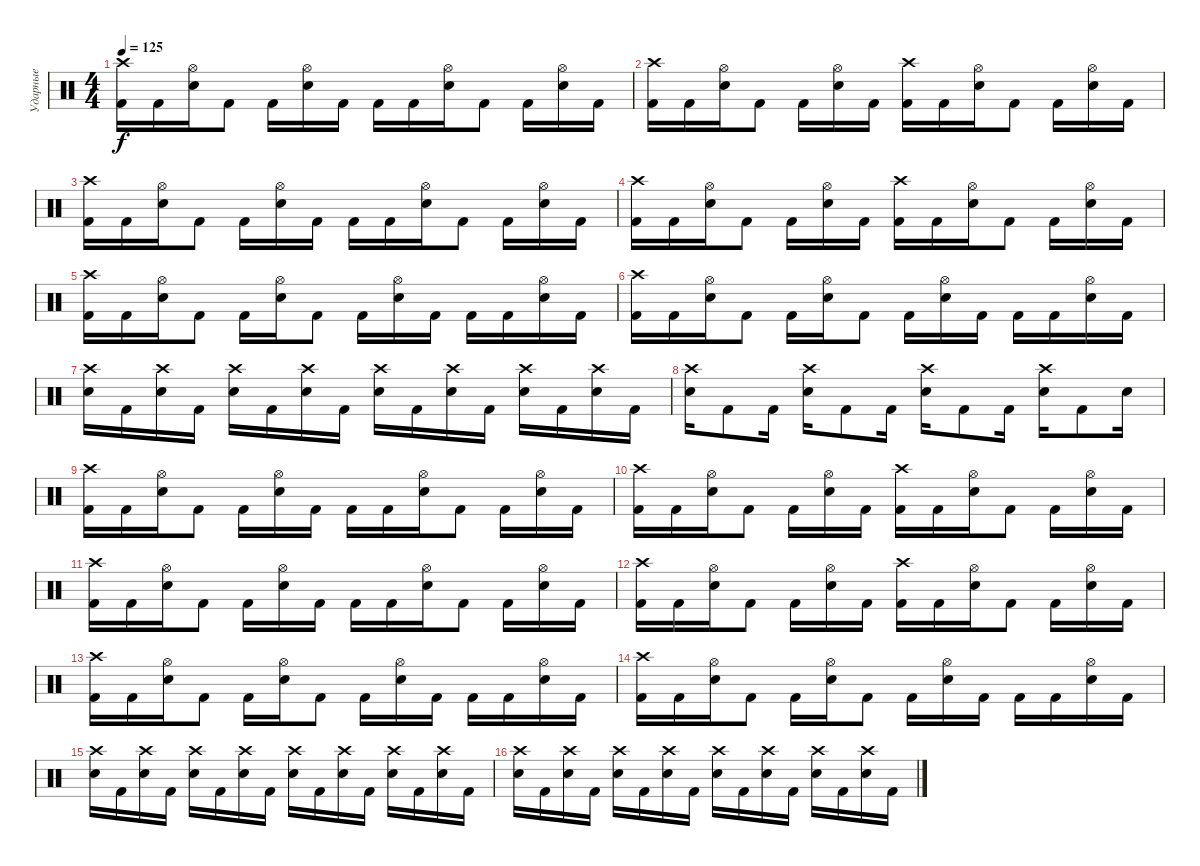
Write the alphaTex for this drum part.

\track ("Ударные" "Ударные") {instrument percussion}
\staff {score}
\articulation defaults
\ts (4 4)
\tempo 125
\clef neutral
\ks c
("Kick (hit) 2" "Crash high (hit)").16{dy f} "Kick (hit) 2".16 ("Electric Snare (hit)" "Hi-Hat (open)").16 "Kick (hit) 2".8 "Kick (hit) 2".16 ("Electric Snare (hit)" "Hi-Hat (open)").16 "Kick (hit) 2".16 "Kick (hit) 2".16 "Kick (hit) 2".16 ("Electric Snare (hit)" "Hi-Hat (open)").16 "Kick (hit) 2".8 "Kick (hit) 2".16 ("Electric Snare (hit)" "Hi-Hat (open)").16 "Kick (hit) 2".16 |
("Kick (hit) 2" "Crash high (hit)").16 "Kick (hit) 2".16 ("Electric Snare (hit)" "Hi-Hat (open)").16 "Kick (hit) 2".8 "Kick (hit) 2".16 ("Electric Snare (hit)" "Hi-Hat (open)").16 "Kick (hit) 2".16 ("Kick (hit) 2" "Crash high (hit)").16 "Kick (hit) 2".16 ("Electric Snare (hit)" "Hi-Hat (open)").16 "Kick (hit) 2".8 "Kick (hit) 2".16 ("Electric Snare (hit)" "Hi-Hat (open)").16 "Kick (hit) 2".16 |
("Kick (hit) 2" "Crash high (hit)").16 "Kick (hit) 2".16 ("Electric Snare (hit)" "Hi-Hat (open)").16 "Kick (hit) 2".8 "Kick (hit) 2".16 ("Electric Snare (hit)" "Hi-Hat (open)").16 "Kick (hit) 2".16 "Kick (hit) 2".16 "Kick (hit) 2".16 ("Electric Snare (hit)" "Hi-Hat (open)").16 "Kick (hit) 2".8 "Kick (hit) 2".16 ("Electric Snare (hit)" "Hi-Hat (open)").16 "Kick (hit) 2".16 |
("Kick (hit) 2" "Crash high (hit)").16 "Kick (hit) 2".16 ("Electric Snare (hit)" "Hi-Hat (open)").16 "Kick (hit) 2".8 "Kick (hit) 2".16 ("Electric Snare (hit)" "Hi-Hat (open)").16 "Kick (hit) 2".16 ("Kick (hit) 2" "Crash high (hit)").16 "Kick (hit) 2".16 ("Electric Snare (hit)" "Hi-Hat (open)").16 "Kick (hit) 2".8 "Kick (hit) 2".16 ("Electric Snare (hit)" "Hi-Hat (open)").16 "Kick (hit) 2".16 |
("Kick (hit) 2" "Crash high (hit)").16 "Kick (hit) 2".16 ("Electric Snare (hit)" "Hi-Hat (open)").16 "Kick (hit) 2".8 "Kick (hit) 2".16 ("Electric Snare (hit)" "Hi-Hat (open)").16 "Kick (hit) 2".8 "Kick (hit) 2".16 ("Electric Snare (hit)" "Hi-Hat (open)").16 "Kick (hit) 2".16 "Kick (hit) 2".16 "Kick (hit) 2".16 ("Electric Snare (hit)" "Hi-Hat (open)").16 "Kick (hit) 2".16 |
("Kick (hit) 2" "Crash high (hit)").16 "Kick (hit) 2".16 ("Electric Snare (hit)" "Hi-Hat (open)").16 "Kick (hit) 2".8 "Kick (hit) 2".16 ("Electric Snare (hit)" "Hi-Hat (open)").16 "Kick (hit) 2".8 "Kick (hit) 2".16 ("Electric Snare (hit)" "Hi-Hat (open)").16 "Kick (hit) 2".16 "Kick (hit) 2".16 "Kick (hit) 2".16 ("Electric Snare (hit)" "Hi-Hat (open)").16 "Kick (hit) 2".16 |
("Electric Snare (hit)" "Crash high (hit)").16 "Kick (hit) 2".16 ("Electric Snare (hit)" "Crash high (hit)").16 "Kick (hit) 2".16 ("Electric Snare (hit)" "Crash high (hit)").16 "Kick (hit) 2".16 ("Electric Snare (hit)" "Crash high (hit)").16 "Kick (hit) 2".16 ("Electric Snare (hit)" "Crash high (hit)").16 "Kick (hit) 2".16 ("Electric Snare (hit)" "Crash high (hit)").16 "Kick (hit) 2".16 ("Electric Snare (hit)" "Crash high (hit)").16 "Kick (hit) 2".16 ("Electric Snare (hit)" "Crash high (hit)").16 "Kick (hit) 2".16 |
("Electric Snare (hit)" "Crash high (hit)").16 "Kick (hit) 2".8 "Kick (hit) 2".16 ("Electric Snare (hit)" "Crash high (hit)").16 "Kick (hit) 2".8 "Kick (hit) 2".16 ("Electric Snare (hit)" "Crash high (hit)").16 "Kick (hit) 2".8 "Kick (hit) 2".16 ("Electric Snare (hit)" "Crash high (hit)").16 "Kick (hit) 2".8 "Electric Snare (hit)".16 |
("Kick (hit) 2" "Crash high (hit)").16 "Kick (hit) 2".16 ("Electric Snare (hit)" "Hi-Hat (open)").16 "Kick (hit) 2".8 "Kick (hit) 2".16 ("Electric Snare (hit)" "Hi-Hat (open)").16 "Kick (hit) 2".16 "Kick (hit) 2".16 "Kick (hit) 2".16 ("Electric Snare (hit)" "Hi-Hat (open)").16 "Kick (hit) 2".8 "Kick (hit) 2".16 ("Electric Snare (hit)" "Hi-Hat (open)").16 "Kick (hit) 2".16 |
("Kick (hit) 2" "Crash high (hit)").16 "Kick (hit) 2".16 ("Electric Snare (hit)" "Hi-Hat (open)").16 "Kick (hit) 2".8 "Kick (hit) 2".16 ("Electric Snare (hit)" "Hi-Hat (open)").16 "Kick (hit) 2".16 ("Kick (hit) 2" "Crash high (hit)").16 "Kick (hit) 2".16 ("Electric Snare (hit)" "Hi-Hat (open)").16 "Kick (hit) 2".8 "Kick (hit) 2".16 ("Electric Snare (hit)" "Hi-Hat (open)").16 "Kick (hit) 2".16 |
("Kick (hit) 2" "Crash high (hit)").16 "Kick (hit) 2".16 ("Electric Snare (hit)" "Hi-Hat (open)").16 "Kick (hit) 2".8 "Kick (hit) 2".16 ("Electric Snare (hit)" "Hi-Hat (open)").16 "Kick (hit) 2".16 "Kick (hit) 2".16 "Kick (hit) 2".16 ("Electric Snare (hit)" "Hi-Hat (open)").16 "Kick (hit) 2".8 "Kick (hit) 2".16 ("Electric Snare (hit)" "Hi-Hat (open)").16 "Kick (hit) 2".16 |
("Kick (hit) 2" "Crash high (hit)").16 "Kick (hit) 2".16 ("Electric Snare (hit)" "Hi-Hat (open)").16 "Kick (hit) 2".8 "Kick (hit) 2".16 ("Electric Snare (hit)" "Hi-Hat (open)").16 "Kick (hit) 2".16 ("Kick (hit) 2" "Crash high (hit)").16 "Kick (hit) 2".16 ("Electric Snare (hit)" "Hi-Hat (open)").16 "Kick (hit) 2".8 "Kick (hit) 2".16 ("Electric Snare (hit)" "Hi-Hat (open)").16 "Kick (hit) 2".16 |
("Kick (hit) 2" "Crash high (hit)").16 "Kick (hit) 2".16 ("Electric Snare (hit)" "Hi-Hat (open)").16 "Kick (hit) 2".8 "Kick (hit) 2".16 ("Electric Snare (hit)" "Hi-Hat (open)").16 "Kick (hit) 2".8 "Kick (hit) 2".16 ("Electric Snare (hit)" "Hi-Hat (open)").16 "Kick (hit) 2".16 "Kick (hit) 2".16 "Kick (hit) 2".16 ("Electric Snare (hit)" "Hi-Hat (open)").16 "Kick (hit) 2".16 |
("Kick (hit) 2" "Crash high (hit)").16 "Kick (hit) 2".16 ("Electric Snare (hit)" "Hi-Hat (open)").16 "Kick (hit) 2".8 "Kick (hit) 2".16 ("Electric Snare (hit)" "Hi-Hat (open)").16 "Kick (hit) 2".8 "Kick (hit) 2".16 ("Electric Snare (hit)" "Hi-Hat (open)").16 "Kick (hit) 2".16 "Kick (hit) 2".16 "Kick (hit) 2".16 ("Electric Snare (hit)" "Hi-Hat (open)").16 "Kick (hit) 2".16 |
("Electric Snare (hit)" "Crash high (hit)").16 "Kick (hit) 2".16 ("Electric Snare (hit)" "Crash high (hit)").16 "Kick (hit) 2".16 ("Electric Snare (hit)" "Crash high (hit)").16 "Kick (hit) 2".16 ("Electric Snare (hit)" "Crash high (hit)").16 "Kick (hit) 2".16 ("Electric Snare (hit)" "Crash high (hit)").16 "Kick (hit) 2".16 ("Electric Snare (hit)" "Crash high (hit)").16 "Kick (hit) 2".16 ("Electric Snare (hit)" "Crash high (hit)").16 "Kick (hit) 2".16 ("Electric Snare (hit)" "Crash high (hit)").16 "Kick (hit) 2".16 |
("Electric Snare (hit)" "Crash high (hit)").16 "Kick (hit) 2".16 ("Electric Snare (hit)" "Crash high (hit)").16 "Kick (hit) 2".16 ("Electric Snare (hit)" "Crash high (hit)").16 "Kick (hit) 2".16 ("Electric Snare (hit)" "Crash high (hit)").16 "Kick (hit) 2".16 ("Electric Snare (hit)" "Crash high (hit)").16 "Kick (hit) 2".16 ("Electric Snare (hit)" "Crash high (hit)").16 "Kick (hit) 2".16 ("Electric Snare (hit)" "Crash high (hit)").16 "Kick (hit) 2".16 ("Electric Snare (hit)" "Crash high (hit)").16 "Kick (hit) 2".16
